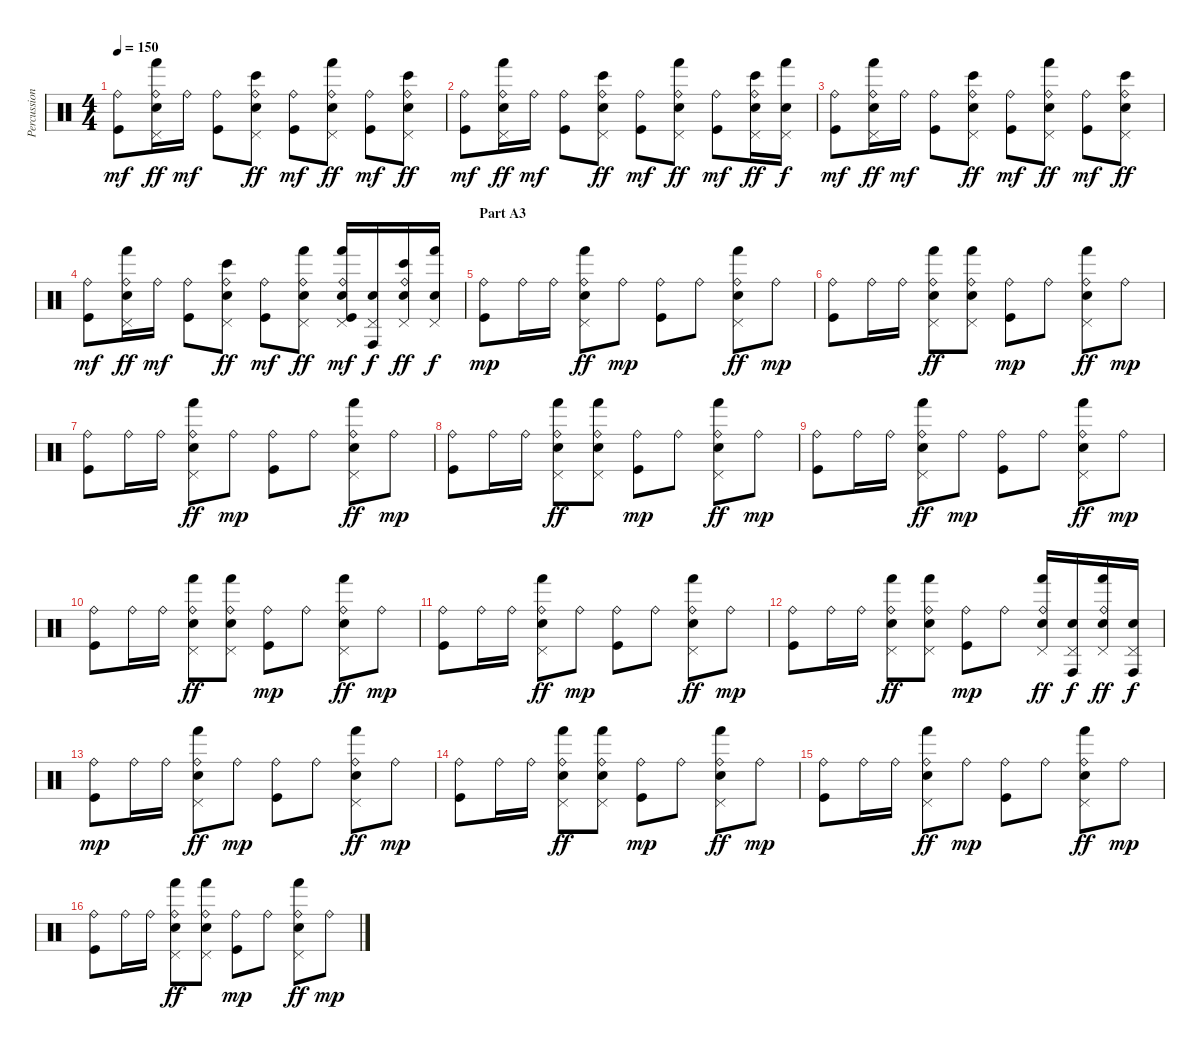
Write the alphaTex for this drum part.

\track ("Percussion" "Percussion") {instrument percussion}
\staff {score}
\articulation defaults
\ts (4 4)
\tempo 150
\clef neutral
\ks c
("Ride (bell)" "Kick (hit)").8{dy mf} ("Ride (bell)" "Pedal Hi-Hat (hit)" "Hand (hit)" "Electric Snare (hit)").16{dy ff} "Ride (bell)".16{dy mf} ("Ride (bell)" "Kick (hit)").8 ("Ride (bell)" "Pedal Hi-Hat (hit)" "Bongo High (hit)" "Electric Snare (hit)").8{dy ff} ("Ride (bell)" "Kick (hit)").8{dy mf} ("Ride (bell)" "Pedal Hi-Hat (hit)" "Hand (hit)" "Electric Snare (hit)").8{dy ff} ("Ride (bell)" "Kick (hit)").8{dy mf} ("Ride (bell)" "Pedal Hi-Hat (hit)" "Bongo High (hit)" "Electric Snare (hit)").8{dy ff} |
("Ride (bell)" "Kick (hit)").8{dy mf} ("Ride (bell)" "Pedal Hi-Hat (hit)" "Hand (hit)" "Electric Snare (hit)").16{dy ff} "Ride (bell)".16{dy mf} ("Ride (bell)" "Kick (hit)").8 ("Ride (bell)" "Pedal Hi-Hat (hit)" "Bongo High (hit)" "Electric Snare (hit)").8{dy ff} ("Ride (bell)" "Kick (hit)").8{dy mf} ("Ride (bell)" "Pedal Hi-Hat (hit)" "Hand (hit)" "Electric Snare (hit)").8{dy ff} ("Ride (bell)" "Kick (hit)").8{dy mf} ("Ride (bell)" "Pedal Hi-Hat (hit)" "Bongo High (hit)" "Electric Snare (hit)").16{dy ff} ("Pedal Hi-Hat (hit)" "Hand (hit)" "Electric Snare (hit)").16{dy f} |
("Ride (bell)" "Kick (hit)").8{dy mf} ("Ride (bell)" "Pedal Hi-Hat (hit)" "Hand (hit)" "Electric Snare (hit)").16{dy ff} "Ride (bell)".16{dy mf} ("Ride (bell)" "Kick (hit)").8 ("Ride (bell)" "Pedal Hi-Hat (hit)" "Bongo High (hit)" "Electric Snare (hit)").8{dy ff} ("Ride (bell)" "Kick (hit)").8{dy mf} ("Ride (bell)" "Pedal Hi-Hat (hit)" "Hand (hit)" "Electric Snare (hit)").8{dy ff} ("Ride (bell)" "Kick (hit)").8{dy mf} ("Ride (bell)" "Pedal Hi-Hat (hit)" "Bongo High (hit)" "Electric Snare (hit)").8{dy ff} |
("Ride (bell)" "Kick (hit)").8{dy mf} ("Ride (bell)" "Pedal Hi-Hat (hit)" "Hand (hit)" "Electric Snare (hit)").16{dy ff} "Ride (bell)".16{dy mf} ("Ride (bell)" "Kick (hit)").8 ("Ride (bell)" "Pedal Hi-Hat (hit)" "Bongo High (hit)" "Electric Snare (hit)").8{dy ff} ("Ride (bell)" "Kick (hit)").8{dy mf} ("Ride (bell)" "Pedal Hi-Hat (hit)" "Hand (hit)" "Electric Snare (hit)").8{dy ff} ("Ride (bell)" "Pedal Hi-Hat (hit)" "Hand (hit)" "Electric Snare (hit)" "Kick (hit)").16{dy mf} ("Pedal Hi-Hat (hit)" "Conga high (hit)" "Electric Snare (hit)").16{dy f} ("Ride (bell)" "Pedal Hi-Hat (hit)" "Bongo High (hit)" "Electric Snare (hit)").16{dy ff} ("Pedal Hi-Hat (hit)" "Hand (hit)" "Electric Snare (hit)").16{dy f} |
\section ("" "Part A3")
("Ride (bell)" "Kick (hit)").8{dy mp} "Ride (bell)".16 "Ride (bell)".16 ("Ride (bell)" "Pedal Hi-Hat (hit)" "Hand (hit)" "Electric Snare (hit)").8{dy ff} "Ride (bell)".8{dy mp} ("Ride (bell)" "Kick (hit)").8 "Ride (bell)".8 ("Ride (bell)" "Pedal Hi-Hat (hit)" "Hand (hit)" "Electric Snare (hit)").8{dy ff} "Ride (bell)".8{dy mp} |
("Ride (bell)" "Kick (hit)").8 "Ride (bell)".16 "Ride (bell)".16 ("Ride (bell)" "Pedal Hi-Hat (hit)" "Hand (hit)" "Electric Snare (hit)").8{dy ff} ("Ride (bell)" "Pedal Hi-Hat (hit)" "Hand (hit)" "Electric Snare (hit)").8 ("Ride (bell)" "Kick (hit)").8{dy mp} "Ride (bell)".8 ("Ride (bell)" "Pedal Hi-Hat (hit)" "Hand (hit)" "Electric Snare (hit)").8{dy ff} "Ride (bell)".8{dy mp} |
("Ride (bell)" "Kick (hit)").8 "Ride (bell)".16 "Ride (bell)".16 ("Ride (bell)" "Pedal Hi-Hat (hit)" "Hand (hit)" "Electric Snare (hit)").8{dy ff} "Ride (bell)".8{dy mp} ("Ride (bell)" "Kick (hit)").8 "Ride (bell)".8 ("Ride (bell)" "Pedal Hi-Hat (hit)" "Hand (hit)" "Electric Snare (hit)").8{dy ff} "Ride (bell)".8{dy mp} |
("Ride (bell)" "Kick (hit)").8 "Ride (bell)".16 "Ride (bell)".16 ("Ride (bell)" "Pedal Hi-Hat (hit)" "Hand (hit)" "Electric Snare (hit)").8{dy ff} ("Ride (bell)" "Pedal Hi-Hat (hit)" "Hand (hit)" "Electric Snare (hit)").8 ("Ride (bell)" "Kick (hit)").8{dy mp} "Ride (bell)".8 ("Ride (bell)" "Pedal Hi-Hat (hit)" "Hand (hit)" "Electric Snare (hit)").8{dy ff} "Ride (bell)".8{dy mp} |
("Ride (bell)" "Kick (hit)").8 "Ride (bell)".16 "Ride (bell)".16 ("Ride (bell)" "Pedal Hi-Hat (hit)" "Hand (hit)" "Electric Snare (hit)").8{dy ff} "Ride (bell)".8{dy mp} ("Ride (bell)" "Kick (hit)").8 "Ride (bell)".8 ("Ride (bell)" "Pedal Hi-Hat (hit)" "Hand (hit)" "Electric Snare (hit)").8{dy ff} "Ride (bell)".8{dy mp} |
("Ride (bell)" "Kick (hit)").8 "Ride (bell)".16 "Ride (bell)".16 ("Ride (bell)" "Pedal Hi-Hat (hit)" "Hand (hit)" "Electric Snare (hit)").8{dy ff} ("Ride (bell)" "Pedal Hi-Hat (hit)" "Hand (hit)" "Electric Snare (hit)").8 ("Ride (bell)" "Kick (hit)").8{dy mp} "Ride (bell)".8 ("Ride (bell)" "Pedal Hi-Hat (hit)" "Hand (hit)" "Electric Snare (hit)").8{dy ff} "Ride (bell)".8{dy mp} |
("Ride (bell)" "Kick (hit)").8 "Ride (bell)".16 "Ride (bell)".16 ("Ride (bell)" "Pedal Hi-Hat (hit)" "Hand (hit)" "Electric Snare (hit)").8{dy ff} "Ride (bell)".8{dy mp} ("Ride (bell)" "Kick (hit)").8 "Ride (bell)".8 ("Ride (bell)" "Pedal Hi-Hat (hit)" "Hand (hit)" "Electric Snare (hit)").8{dy ff} "Ride (bell)".8{dy mp} |
("Ride (bell)" "Kick (hit)").8 "Ride (bell)".16 "Ride (bell)".16 ("Ride (bell)" "Pedal Hi-Hat (hit)" "Hand (hit)" "Electric Snare (hit)").8{dy ff} ("Ride (bell)" "Pedal Hi-Hat (hit)" "Hand (hit)" "Electric Snare (hit)").8 ("Ride (bell)" "Kick (hit)").8{dy mp} "Ride (bell)".8 ("Ride (bell)" "Pedal Hi-Hat (hit)" "Hand (hit)" "Electric Snare (hit)").16{dy ff} ("Pedal Hi-Hat (hit)" "Conga high (hit)" "Electric Snare (hit)").16{dy f} ("Ride (bell)" "Pedal Hi-Hat (hit)" "Hand (hit)" "Electric Snare (hit)").16{dy ff} ("Pedal Hi-Hat (hit)" "Conga high (hit)" "Electric Snare (hit)").16{dy f} |
("Ride (bell)" "Kick (hit)").8{dy mp} "Ride (bell)".16 "Ride (bell)".16 ("Ride (bell)" "Pedal Hi-Hat (hit)" "Hand (hit)" "Electric Snare (hit)").8{dy ff} "Ride (bell)".8{dy mp} ("Ride (bell)" "Kick (hit)").8 "Ride (bell)".8 ("Ride (bell)" "Pedal Hi-Hat (hit)" "Hand (hit)" "Electric Snare (hit)").8{dy ff} "Ride (bell)".8{dy mp} |
("Ride (bell)" "Kick (hit)").8 "Ride (bell)".16 "Ride (bell)".16 ("Ride (bell)" "Pedal Hi-Hat (hit)" "Hand (hit)" "Electric Snare (hit)").8{dy ff} ("Ride (bell)" "Pedal Hi-Hat (hit)" "Hand (hit)" "Electric Snare (hit)").8 ("Ride (bell)" "Kick (hit)").8{dy mp} "Ride (bell)".8 ("Ride (bell)" "Pedal Hi-Hat (hit)" "Hand (hit)" "Electric Snare (hit)").8{dy ff} "Ride (bell)".8{dy mp} |
("Ride (bell)" "Kick (hit)").8 "Ride (bell)".16 "Ride (bell)".16 ("Ride (bell)" "Pedal Hi-Hat (hit)" "Hand (hit)" "Electric Snare (hit)").8{dy ff} "Ride (bell)".8{dy mp} ("Ride (bell)" "Kick (hit)").8 "Ride (bell)".8 ("Ride (bell)" "Pedal Hi-Hat (hit)" "Hand (hit)" "Electric Snare (hit)").8{dy ff} "Ride (bell)".8{dy mp} |
("Ride (bell)" "Kick (hit)").8 "Ride (bell)".16 "Ride (bell)".16 ("Ride (bell)" "Pedal Hi-Hat (hit)" "Hand (hit)" "Electric Snare (hit)").8{dy ff} ("Ride (bell)" "Pedal Hi-Hat (hit)" "Hand (hit)" "Electric Snare (hit)").8 ("Ride (bell)" "Kick (hit)").8{dy mp} "Ride (bell)".8 ("Ride (bell)" "Pedal Hi-Hat (hit)" "Hand (hit)" "Electric Snare (hit)").8{dy ff} "Ride (bell)".8{dy mp}
